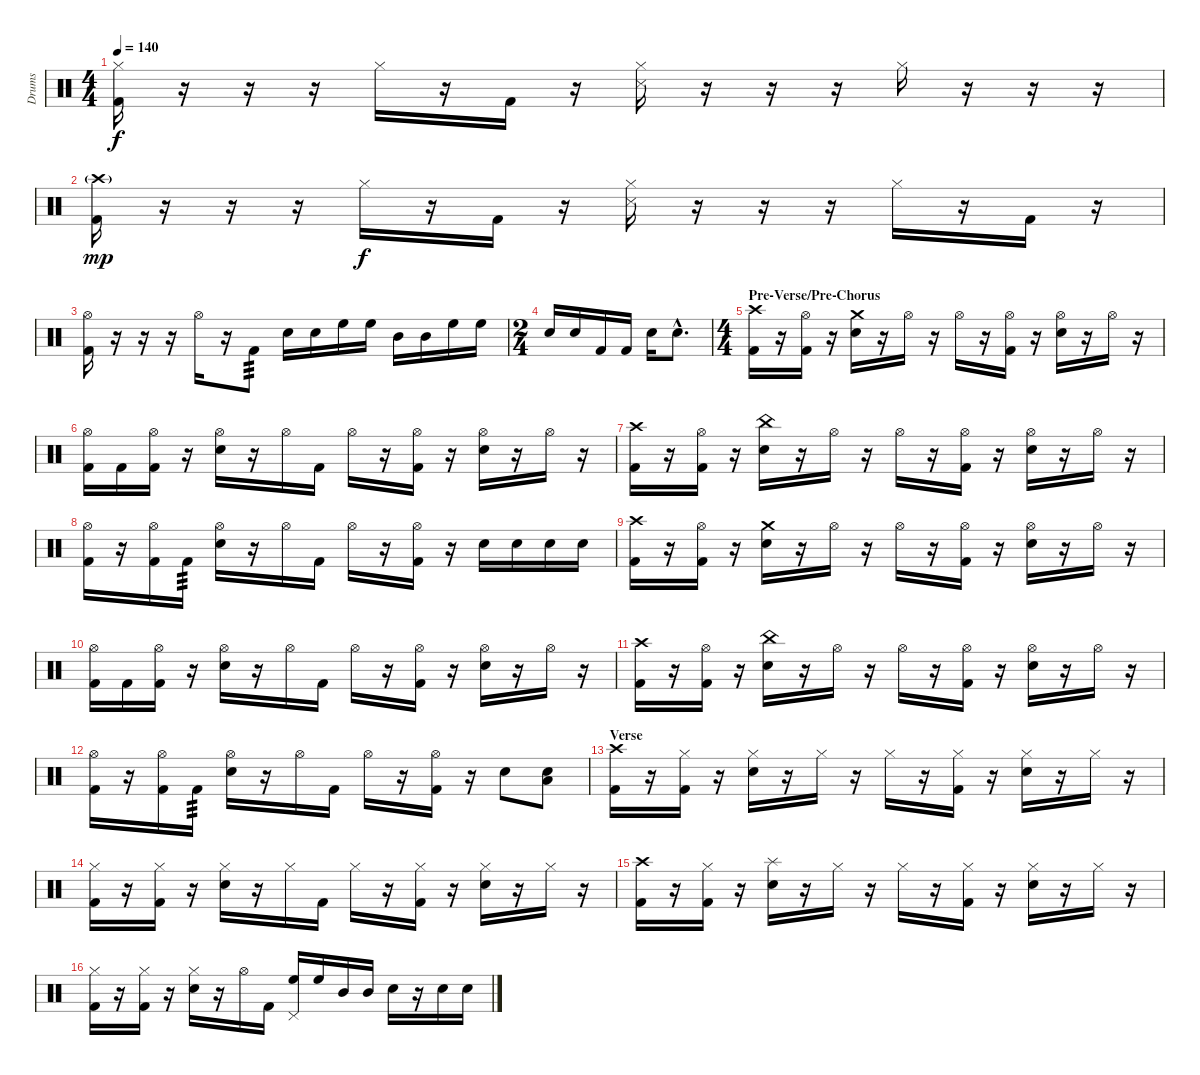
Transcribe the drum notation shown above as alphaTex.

\track ("Drums" "Drums") {instrument percussion}
\staff {score}
\articulation defaults
\ts (4 4)
\tempo 140
\clef neutral
\ks c
("Hi-Hat (closed)" "Kick (hit) 2").16{dy f} r.16 r.16 r.16 "Hi-Hat (closed)".16 r.16 "Kick (hit) 2".16 r.16 ("Hi-Hat (closed)" "Snare (side stick) 3").16 r.16 r.16 r.16 "Hi-Hat (closed)".16 r.16 r.16 r.16 |
("Crash high (hit)"{g} "Kick (hit) 2").16{dy mp} r.16 r.16 r.16 "Hi-Hat (closed)".16{dy f} r.16 "Kick (hit) 2".16 r.16 ("Hi-Hat (closed)" "Snare (side stick) 3").16 r.16 r.16 r.16 "Hi-Hat (closed)".16 r.16 "Kick (hit) 2".16 r.16 |
("Hi-Hat (open)" "Kick (hit) 2").16 r.16 r.16 r.16 "Hi-Hat (open)".16 r.16 "Kick (hit) 2".8{tp 3} "Snare (hit) 2".16 "Snare (hit) 2".16 "High Floor Tom (hit)".16 "High Floor Tom (hit)".16 "Mid Tom (hit)".16 "Mid Tom (hit)".16 "High Floor Tom (hit)".16 "High Floor Tom (hit)".16 |
\ts (2 4)
"Snare (hit) 2".16 "Snare (hit) 2".16 "Kick (hit) 2".16 "Kick (hit) 2".16 "Snare (hit) 2".16 "Snare (hit) 2"{hac}.8{d} |
\ts (4 4)
\section ("" "Pre-Verse/Pre-Chorus")
("Crash high (hit)" "Kick (hit) 2").16 r.16 ("Hi-Hat (open)" "Kick (hit) 2").16 r.16 ("Crash medium (hit)" "Snare (hit) 2").16 r.16 "Hi-Hat (open)".16 r.16 "Hi-Hat (open)".16 r.16 ("Hi-Hat (open)" "Kick (hit) 2").16 r.16 ("Hi-Hat (open)" "Snare (hit) 2").16 r.16 "Hi-Hat (open)".16 r.16 |
("Hi-Hat (open)" "Kick (hit) 2").16 "Kick (hit) 2".16 ("Hi-Hat (open)" "Kick (hit) 2").16 r.16 ("Hi-Hat (open)" "Snare (hit) 2").16 r.16 "Hi-Hat (open)".16 "Kick (hit) 2".16 "Hi-Hat (open)".16 r.16 ("Hi-Hat (open)" "Kick (hit) 2").16 r.16 ("Hi-Hat (open)" "Snare (hit) 2").16 r.16 "Hi-Hat (open)".16 r.16 |
("Crash high (hit)" "Kick (hit) 2").16 r.16 ("Hi-Hat (open)" "Kick (hit) 2").16 r.16 ("China (hit)" "Snare (hit) 2").16 r.16 "Hi-Hat (open)".16 r.16 "Hi-Hat (open)".16 r.16 ("Hi-Hat (open)" "Kick (hit) 2").16 r.16 ("Hi-Hat (open)" "Snare (hit) 2").16 r.16 "Hi-Hat (open)".16 r.16 |
("Hi-Hat (open)" "Kick (hit) 2").16 r.16 ("Hi-Hat (open)" "Kick (hit) 2").16 "Kick (hit) 2".16{tp 3} ("Hi-Hat (open)" "Snare (hit) 2").16 r.16 "Hi-Hat (open)".16 "Kick (hit) 2".16 "Hi-Hat (open)".16 r.16 ("Hi-Hat (open)" "Kick (hit) 2").16 r.16 "Snare (hit) 2".16 "Snare (hit) 2".16 "Snare (hit) 2".16 "Snare (hit) 2".16 |
("Crash high (hit)" "Kick (hit) 2").16 r.16 ("Hi-Hat (open)" "Kick (hit) 2").16 r.16 ("Crash medium (hit)" "Snare (hit) 2").16 r.16 "Hi-Hat (open)".16 r.16 "Hi-Hat (open)".16 r.16 ("Hi-Hat (open)" "Kick (hit) 2").16 r.16 ("Hi-Hat (open)" "Snare (hit) 2").16 r.16 "Hi-Hat (open)".16 r.16 |
("Hi-Hat (open)" "Kick (hit) 2").16 "Kick (hit) 2".16 ("Hi-Hat (open)" "Kick (hit) 2").16 r.16 ("Hi-Hat (open)" "Snare (hit) 2").16 r.16 "Hi-Hat (open)".16 "Kick (hit) 2".16 "Hi-Hat (open)".16 r.16 ("Hi-Hat (open)" "Kick (hit) 2").16 r.16 ("Hi-Hat (open)" "Snare (hit) 2").16 r.16 "Hi-Hat (open)".16 r.16 |
("Crash high (hit)" "Kick (hit) 2").16 r.16 ("Hi-Hat (open)" "Kick (hit) 2").16 r.16 ("China (hit)" "Snare (hit) 2").16 r.16 "Hi-Hat (open)".16 r.16 "Hi-Hat (open)".16 r.16 ("Hi-Hat (open)" "Kick (hit) 2").16 r.16 ("Hi-Hat (open)" "Snare (hit) 2").16 r.16 "Hi-Hat (open)".16 r.16 |
("Hi-Hat (open)" "Kick (hit) 2").16 r.16 ("Hi-Hat (open)" "Kick (hit) 2").16 "Kick (hit) 2".16{tp 3} ("Hi-Hat (open)" "Snare (hit) 2").16 r.16 "Hi-Hat (open)".16 "Kick (hit) 2".16 "Hi-Hat (open)".16 r.16 ("Hi-Hat (open)" "Kick (hit) 2").16 r.16 "Snare (hit) 2".8 ("Snare (hit) 2" "Low Tom (hit)").8 |
\section ("" "Verse")
("Crash high (hit)" "Kick (hit) 2").16 r.16 ("Hi-Hat (closed)" "Kick (hit) 2").16 r.16 ("Hi-Hat (closed)" "Snare (hit) 2").16 r.16 "Hi-Hat (closed)".16 r.16 "Hi-Hat (closed)".16 r.16 ("Hi-Hat (closed)" "Kick (hit) 2").16 r.16 ("Hi-Hat (closed)" "Snare (hit) 2").16 r.16 "Hi-Hat (closed)".16 r.16 |
("Hi-Hat (closed)" "Kick (hit) 2").16 r.16 ("Hi-Hat (closed)" "Kick (hit) 2").16 r.16 ("Hi-Hat (closed)" "Snare (hit) 2").16 r.16 "Hi-Hat (closed)".16 "Kick (hit) 2".16 "Hi-Hat (closed)".16 r.16 ("Hi-Hat (closed)" "Kick (hit) 2").16 r.16 ("Hi-Hat (closed)" "Snare (hit) 2").16 r.16 "Hi-Hat (closed)".16 r.16 |
("Crash high (hit)" "Kick (hit) 2").16 r.16 ("Hi-Hat (closed)" "Kick (hit) 2").16 r.16 ("Splash (hit)" "Snare (hit) 2").16 r.16 "Hi-Hat (closed)".16 r.16 "Hi-Hat (closed)".16 r.16 ("Hi-Hat (closed)" "Kick (hit) 2").16 r.16 ("Hi-Hat (closed)" "Snare (hit) 2").16 r.16 "Hi-Hat (closed)".16 r.16 |
("Hi-Hat (closed)" "Kick (hit) 2").16 r.16 ("Hi-Hat (closed)" "Kick (hit) 2").16 r.16 ("Hi-Hat (closed)" "Snare (hit) 2").16 r.16 "Hi-Hat (open)".16 "Kick (hit) 2".16 ("High Floor Tom (hit)" "Pedal Hi-Hat (hit)").16 "High Floor Tom (hit)".16 "Mid Tom (hit)".16 "Mid Tom (hit)".16 "Snare (hit) 2".16 r.16 "Snare (hit) 2".16 "Snare (hit) 2".16
